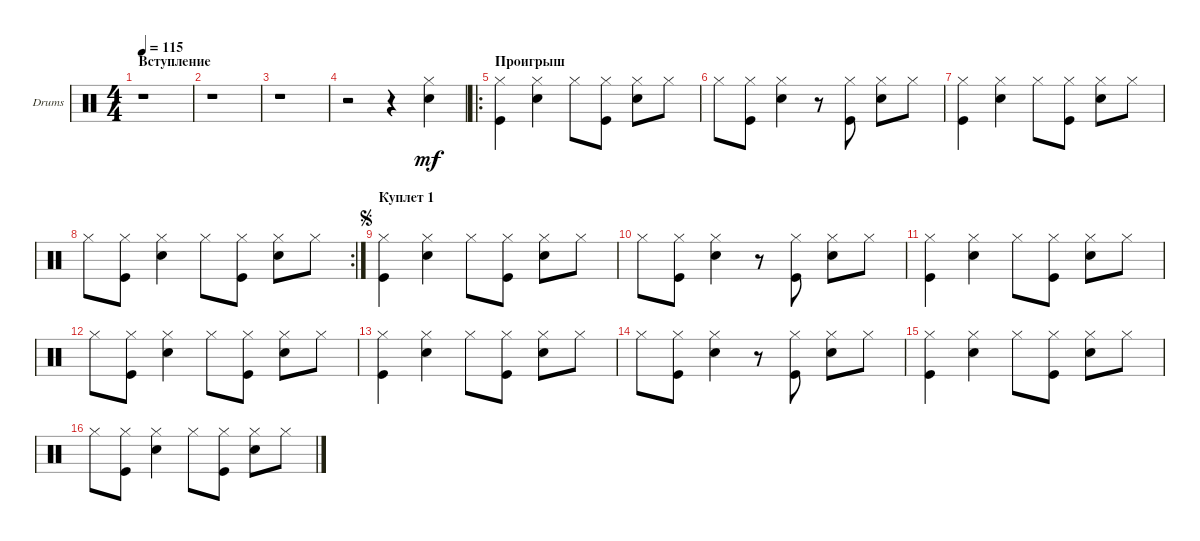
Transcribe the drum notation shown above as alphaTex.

\defaultSystemsLayout 4
\bracketExtendMode groupsimilarinstruments
\firstSystemTrackNameOrientation horizontal
\otherSystemsTrackNameOrientation horizontal
\track ("Ударные" "Drums") {instrument percussion}
\staff {score}
\articulation defaults
\ts (4 4)
\section ("" "Вступление")
\tempo 115
\clef neutral
\scale
0.474178
\ks c
r.1{dy mf} |
\scale
0.262911 r.1 |
\scale
0.262911 r.1 |
r.2 r.4 ("Snare (hit) 2" "Hi-Hat (closed)").4 |
\ro
\section ("" "Проигрыш")
("Kick (hit)" "Hi-Hat (closed)").4 ("Snare (hit) 2" "Hi-Hat (closed)").4 "Hi-Hat (closed)".8 ("Kick (hit)" "Hi-Hat (closed)").8 ("Hi-Hat (closed)" "Snare (hit) 2").8 "Hi-Hat (closed)".8 |
"Hi-Hat (closed)".8 ("Kick (hit)" "Hi-Hat (closed)").8 ("Snare (hit) 2" "Hi-Hat (closed)").4 r.8 ("Kick (hit)" "Hi-Hat (closed)").8 ("Hi-Hat (closed)" "Snare (hit) 2").8 "Hi-Hat (closed)".8 |
("Kick (hit)" "Hi-Hat (closed)").4 ("Snare (hit) 2" "Hi-Hat (closed)").4 "Hi-Hat (closed)".8 ("Kick (hit)" "Hi-Hat (closed)").8 ("Hi-Hat (closed)" "Snare (hit) 2").8 "Hi-Hat (closed)".8 |
\rc 2 "Hi-Hat (closed)".8
("Kick (hit)" "Hi-Hat (closed)").8 ("Snare (hit) 2" "Hi-Hat (closed)").4 "Hi-Hat (closed)".8 ("Kick (hit)" "Hi-Hat (closed)").8 ("Hi-Hat (closed)" "Snare (hit) 2").8 "Hi-Hat (closed)".8 |
\section ("" "Куплет 1")
\jump segno
("Kick (hit)" "Hi-Hat (closed)").4 ("Snare (hit) 2" "Hi-Hat (closed)").4 "Hi-Hat (closed)".8 ("Kick (hit)" "Hi-Hat (closed)").8 ("Hi-Hat (closed)" "Snare (hit) 2").8 "Hi-Hat (closed)".8 |
"Hi-Hat (closed)".8 ("Kick (hit)" "Hi-Hat (closed)").8 ("Snare (hit) 2" "Hi-Hat (closed)").4 r.8 ("Kick (hit)" "Hi-Hat (closed)").8 ("Hi-Hat (closed)" "Snare (hit) 2").8 "Hi-Hat (closed)".8 |
("Kick (hit)" "Hi-Hat (closed)").4 ("Snare (hit) 2" "Hi-Hat (closed)").4 "Hi-Hat (closed)".8 ("Kick (hit)" "Hi-Hat (closed)").8 ("Hi-Hat (closed)" "Snare (hit) 2").8 "Hi-Hat (closed)".8 |
"Hi-Hat (closed)".8 ("Kick (hit)" "Hi-Hat (closed)").8 ("Snare (hit) 2" "Hi-Hat (closed)").4 "Hi-Hat (closed)".8 ("Kick (hit)" "Hi-Hat (closed)").8 ("Hi-Hat (closed)" "Snare (hit) 2").8 "Hi-Hat (closed)".8 |
("Kick (hit)" "Hi-Hat (closed)").4 ("Snare (hit) 2" "Hi-Hat (closed)").4 "Hi-Hat (closed)".8 ("Kick (hit)" "Hi-Hat (closed)").8 ("Hi-Hat (closed)" "Snare (hit) 2").8 "Hi-Hat (closed)".8 |
"Hi-Hat (closed)".8 ("Kick (hit)" "Hi-Hat (closed)").8 ("Snare (hit) 2" "Hi-Hat (closed)").4 r.8 ("Kick (hit)" "Hi-Hat (closed)").8 ("Hi-Hat (closed)" "Snare (hit) 2").8 "Hi-Hat (closed)".8 |
("Kick (hit)" "Hi-Hat (closed)").4 ("Snare (hit) 2" "Hi-Hat (closed)").4 "Hi-Hat (closed)".8 ("Kick (hit)" "Hi-Hat (closed)").8 ("Hi-Hat (closed)" "Snare (hit) 2").8 "Hi-Hat (closed)".8 |
"Hi-Hat (closed)".8 ("Kick (hit)" "Hi-Hat (closed)").8 ("Snare (hit) 2" "Hi-Hat (closed)").4 "Hi-Hat (closed)".8 ("Kick (hit)" "Hi-Hat (closed)").8 ("Hi-Hat (closed)" "Snare (hit) 2").8 "Hi-Hat (closed)".8
